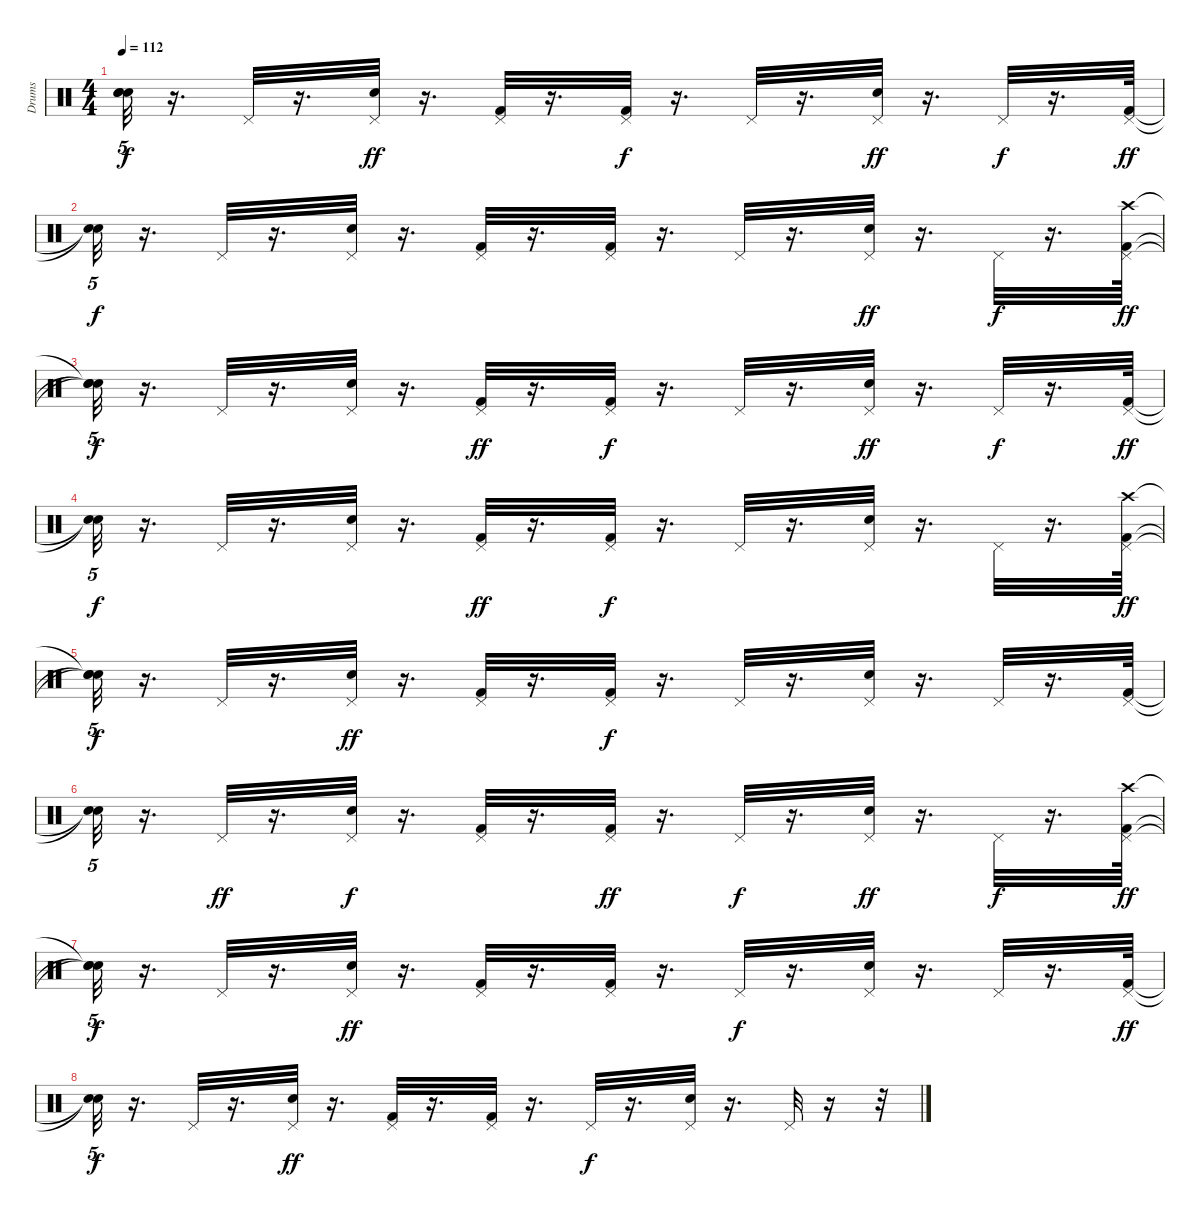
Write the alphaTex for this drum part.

\track ("Drums" "Drums") {instrument percussion}
\staff {score}
\articulation defaults
\ts (4 4)
\tempo 112
\clef neutral
\ks c
("Snare (hit)"{t} "Snare (hit)"{t} "Snare (hit)"{t}).32{tu (5 4) dy f} r.16{d} "Pedal Hi-Hat (hit)".32 r.16{d} ("Pedal Hi-Hat (hit)" "Snare (hit) 2").32{dy ff} r.16{d} ("Kick (hit) 2" "Pedal Hi-Hat (hit)").32 r.16{d} ("Kick (hit) 2" "Pedal Hi-Hat (hit)").32{dy f} r.16{d} "Pedal Hi-Hat (hit)".32 r.16{d} ("Snare (hit) 2" "Pedal Hi-Hat (hit)").32{dy ff} r.16{d} "Pedal Hi-Hat (hit)".32{dy f} r.16{d} ("Pedal Hi-Hat (hit)" "Kick (hit) 2").64{dy ff} |
("Snare (hit)"{t} "Snare (hit)"{t}).32{tu (5 4) dy f} r.16{d} "Pedal Hi-Hat (hit)".32 r.16{d} ("Pedal Hi-Hat (hit)" "Snare (hit) 2").32 r.16{d} ("Pedal Hi-Hat (hit)" "Kick (hit) 2").32 r.16{d} ("Pedal Hi-Hat (hit)" "Kick (hit) 2").32 r.16{d} "Pedal Hi-Hat (hit)".32 r.16{d} ("Snare (hit) 2" "Pedal Hi-Hat (hit)").32{dy ff} r.16{d} "Pedal Hi-Hat (hit)".32{dy f} r.16{d} ("Kick (hit) 2" "Crash high (hit)" "Pedal Hi-Hat (hit)").64{dy ff} |
("Snare (hit)"{t} "Snare (hit)"{t} "Snare (hit)"{t}).32{tu (5 4) dy f} r.16{d} "Pedal Hi-Hat (hit)".32 r.16{d} ("Snare (hit) 2" "Pedal Hi-Hat (hit)").32 r.16{d} ("Pedal Hi-Hat (hit)" "Kick (hit) 2").32{dy ff} r.16{d} ("Kick (hit) 2" "Pedal Hi-Hat (hit)").32{dy f} r.16{d} "Pedal Hi-Hat (hit)".32 r.16{d} ("Snare (hit) 2" "Pedal Hi-Hat (hit)").32{dy ff} r.16{d} "Pedal Hi-Hat (hit)".32{dy f} r.16{d} ("Pedal Hi-Hat (hit)" "Kick (hit) 2").64{dy ff} |
("Snare (hit)"{t} "Snare (hit)"{t}).32{tu (5 4) dy f} r.16{d} "Pedal Hi-Hat (hit)".32{volume 12} r.16{d} ("Snare (hit) 2" "Pedal Hi-Hat (hit)").32{volume 12} r.16{d} ("Pedal Hi-Hat (hit)" "Kick (hit) 2").32{dy ff volume 12} r.16{d} ("Pedal Hi-Hat (hit)" "Kick (hit) 2").32{dy f volume 11} r.16{d} "Pedal Hi-Hat (hit)".32{volume 11} r.16{d} ("Snare (hit) 2" "Pedal Hi-Hat (hit)").32{volume 11} r.16{d} "Pedal Hi-Hat (hit)".32{volume 10} r.16{d} ("Kick (hit) 2" "Pedal Hi-Hat (hit)" "Crash high (hit)").64{dy ff volume 10} |
("Snare (hit)"{t} "Snare (hit)"{t} "Snare (hit)"{t}).32{tu (5 4) dy f} r.16{d} "Pedal Hi-Hat (hit)".32{volume 10} r.16{d} ("Snare (hit) 2" "Pedal Hi-Hat (hit)").32{dy ff volume 9} r.16{d} ("Kick (hit) 2" "Pedal Hi-Hat (hit)").32{volume 9} r.16{d} ("Kick (hit) 2" "Pedal Hi-Hat (hit)").32{dy f volume 9} r.16{d} "Pedal Hi-Hat (hit)".32{volume 8} r.16{d} ("Snare (hit) 2" "Pedal Hi-Hat (hit)").32{volume 8} r.16{d} "Pedal Hi-Hat (hit)".32{volume 8} r.16{d} ("Pedal Hi-Hat (hit)" "Kick (hit) 2").64{volume 8} |
("Snare (hit)"{t} "Snare (hit)"{t}).32{tu (5 4)} r.16{d} "Pedal Hi-Hat (hit)".32{dy ff volume 7} r.16{d} ("Pedal Hi-Hat (hit)" "Snare (hit) 2").32{dy f volume 7} r.16{d} ("Pedal Hi-Hat (hit)" "Kick (hit) 2").32{volume 7} r.16{d} ("Kick (hit) 2" "Pedal Hi-Hat (hit)").32{dy ff volume 6} r.16{d} "Pedal Hi-Hat (hit)".32{dy f volume 6} r.16{d} ("Pedal Hi-Hat (hit)" "Snare (hit) 2").32{dy ff volume 6} r.16{d} "Pedal Hi-Hat (hit)".32{dy f volume 5} r.16{d} ("Kick (hit) 2" "Pedal Hi-Hat (hit)" "Crash high (hit)").64{dy ff volume 5} |
("Snare (hit)"{t} "Snare (hit)"{t} "Snare (hit)"{t}).32{tu (5 4) dy f} r.16{d} "Pedal Hi-Hat (hit)".32{volume 5} r.16{d} ("Snare (hit) 2" "Pedal Hi-Hat (hit)").32{dy ff volume 4} r.16{d} ("Kick (hit) 2" "Pedal Hi-Hat (hit)").32{volume 4} r.16{d} ("Pedal Hi-Hat (hit)" "Kick (hit) 2").32{volume 4} r.16{d} "Pedal Hi-Hat (hit)".32{dy f volume 4} r.16{d} ("Snare (hit) 2" "Pedal Hi-Hat (hit)").32{volume 3} r.16{d} "Pedal Hi-Hat (hit)".32{volume 3} r.16{d} ("Kick (hit) 2" "Pedal Hi-Hat (hit)").64{dy ff volume 3} |
("Snare (hit)"{t} "Snare (hit)"{t}).32{tu (5 4) dy f} r.16{d} "Pedal Hi-Hat (hit)".32{volume 2} r.16{d} ("Pedal Hi-Hat (hit)" "Snare (hit) 2").32{dy ff volume 2} r.16{d} ("Pedal Hi-Hat (hit)" "Kick (hit) 2").32{volume 2} r.16{d} ("Pedal Hi-Hat (hit)" "Kick (hit) 2").32{volume 1} r.16{d} "Pedal Hi-Hat (hit)".32{dy f volume 1} r.16{d} ("Snare (hit) 2" "Pedal Hi-Hat (hit)").32{volume 1} r.16{d} "Pedal Hi-Hat (hit)".32{volume 0} r.16 r.32
